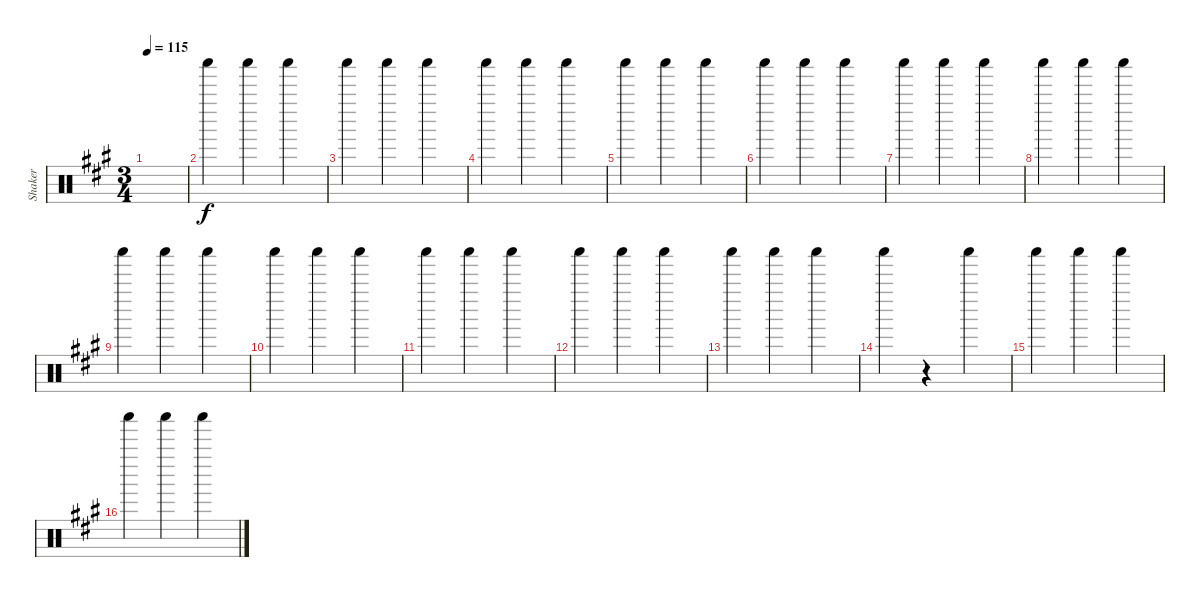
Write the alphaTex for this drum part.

\track ("Shaker" "Shaker") {instrument percussion}
\staff {score}
\articulation defaults
\ts (3 4)
\tempo 115
\clef neutral
\ks a
|
"Shaker (hit)".4 "Shaker (hit)".4 "Shaker (hit)".4 |
"Shaker (hit)".4 "Shaker (hit)".4 "Shaker (hit)".4 |
"Shaker (hit)".4 "Shaker (hit)".4 "Shaker (hit)".4 |
"Shaker (hit)".4 "Shaker (hit)".4 "Shaker (hit)".4 |
"Shaker (hit)".4 "Shaker (hit)".4 "Shaker (hit)".4 |
"Shaker (hit)".4 "Shaker (hit)".4 "Shaker (hit)".4 |
"Shaker (hit)".4 "Shaker (hit)".4 "Shaker (hit)".4 |
"Shaker (hit)".4 "Shaker (hit)".4 "Shaker (hit)".4 |
"Shaker (hit)".4 "Shaker (hit)".4 "Shaker (hit)".4 |
"Shaker (hit)".4 "Shaker (hit)".4 "Shaker (hit)".4 |
"Shaker (hit)".4 "Shaker (hit)".4 "Shaker (hit)".4 |
"Shaker (hit)".4 "Shaker (hit)".4 "Shaker (hit)".4 |
"Shaker (hit)".4 r.4 "Shaker (hit)".4 |
"Shaker (hit)".4 "Shaker (hit)".4 "Shaker (hit)".4 |
"Shaker (hit)".4 "Shaker (hit)".4 "Shaker (hit)".4
